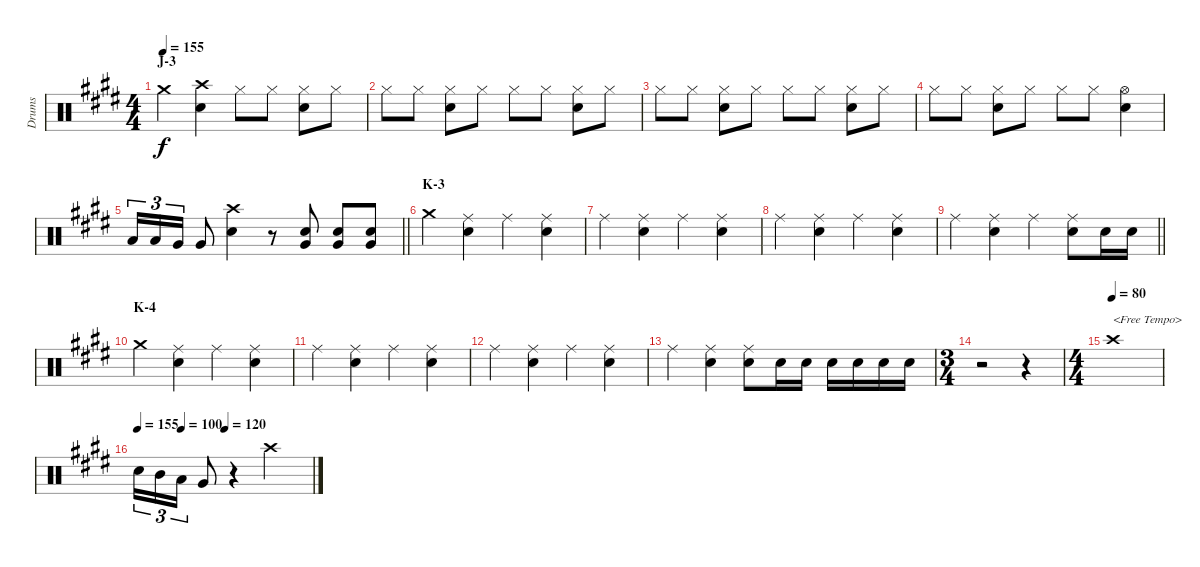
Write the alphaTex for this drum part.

\track ("Drums" "Drums") {instrument percussion}
\staff {score}
\articulation defaults
\ts (4 4)
\section ("" "J-3")
\tempo 155
\clef neutral
\ks e "Crash medium (hit)".4{dy f}
("Crash high (hit)" "Snare (hit) 2").4 "Hi-Hat (closed)".8 "Hi-Hat (closed)".8 ("Hi-Hat (closed)" "Snare (hit) 2").8 "Hi-Hat (closed)".8 |
"Hi-Hat (closed)".8 "Hi-Hat (closed)".8 ("Hi-Hat (closed)" "Snare (hit) 2").8 "Hi-Hat (closed)".8 "Hi-Hat (closed)".8 "Hi-Hat (closed)".8 ("Hi-Hat (closed)" "Snare (hit) 2").8 "Hi-Hat (closed)".8 |
"Hi-Hat (closed)".8 "Hi-Hat (closed)".8 ("Hi-Hat (closed)" "Snare (hit) 2").8 "Hi-Hat (closed)".8 "Hi-Hat (closed)".8 "Hi-Hat (closed)".8 ("Hi-Hat (closed)" "Snare (hit) 2").8 "Hi-Hat (closed)".8 |
"Hi-Hat (closed)".8 "Hi-Hat (closed)".8 ("Hi-Hat (closed)" "Snare (hit) 2").8 "Hi-Hat (closed)".8 "Hi-Hat (closed)".8 "Hi-Hat (closed)".8 ("Hi-Hat (open)" "Snare (hit) 2").4 |
\barLineRight lightlight "Low Tom (hit)".16{tu (3 2)} "Low Tom (hit)".16{tu (3 2)} "Very Low Tom (hit)".16{tu (3 2)} "Very Low Tom (hit)".8
("Crash high (hit)" "Snare (hit) 2").4 r.8 ("Snare (hit) 2" "Very Low Tom (hit)").8 ("Snare (hit) 2" "Very Low Tom (hit)").8 ("Snare (hit) 2" "Very Low Tom (hit)").8 |
\section ("" "K-3")
"Crash medium (hit)".4 ("Ride (middle)" "Snare (hit) 2").4 "Ride (middle)".4 ("Ride (middle)" "Snare (hit) 2").4 |
"Ride (middle)".4 ("Ride (middle)" "Snare (hit) 2").4 "Ride (middle)".4 ("Ride (middle)" "Snare (hit) 2").4 |
"Ride (middle)".4 ("Ride (middle)" "Snare (hit) 2").4 "Ride (middle)".4 ("Ride (middle)" "Snare (hit) 2").4 |
\barLineRight lightlight "Ride (middle)".4
("Ride (middle)" "Snare (hit) 2").4 "Ride (middle)".4 ("Ride (middle)" "Snare (hit) 2").8 "Snare (hit) 2".16 "Snare (hit) 2".16 |
\section ("" "K-4")
"Crash medium (hit)".4 ("Ride (middle)" "Snare (hit) 2").4 "Ride (middle)".4 ("Ride (middle)" "Snare (hit) 2").4 |
"Ride (middle)".4 ("Ride (middle)" "Snare (hit) 2").4 "Ride (middle)".4 ("Ride (middle)" "Snare (hit) 2").4 |
"Ride (middle)".4 ("Ride (middle)" "Snare (hit) 2").4 "Ride (middle)".4 ("Ride (middle)" "Snare (hit) 2").4 |
"Ride (middle)".4 ("Ride (middle)" "Snare (hit) 2").4 ("Ride (middle)" "Snare (hit) 2").8 "Snare (hit) 2".16 "Snare (hit) 2".16 "Snare (hit) 2".16 "Snare (hit) 2".16 "Snare (hit) 2".16 "Snare (hit) 2".16 |
\ts (3 4)
r.2 r.4 |
\ts (4 4)
\tempo (80)
"Crash high (hit)".1{txt "<Free Tempo>"} |
\tempo 155
\tempo (100 0.25)
\tempo (120 0.5)
"Snare (hit) 2".16{tu (3 2)} "Mid Tom (hit)".16{tu (3 2)} "Low Tom (hit)".16{tu (3 2)} "Very Low Tom (hit)".8 r.4 "Crash high (hit)".2
